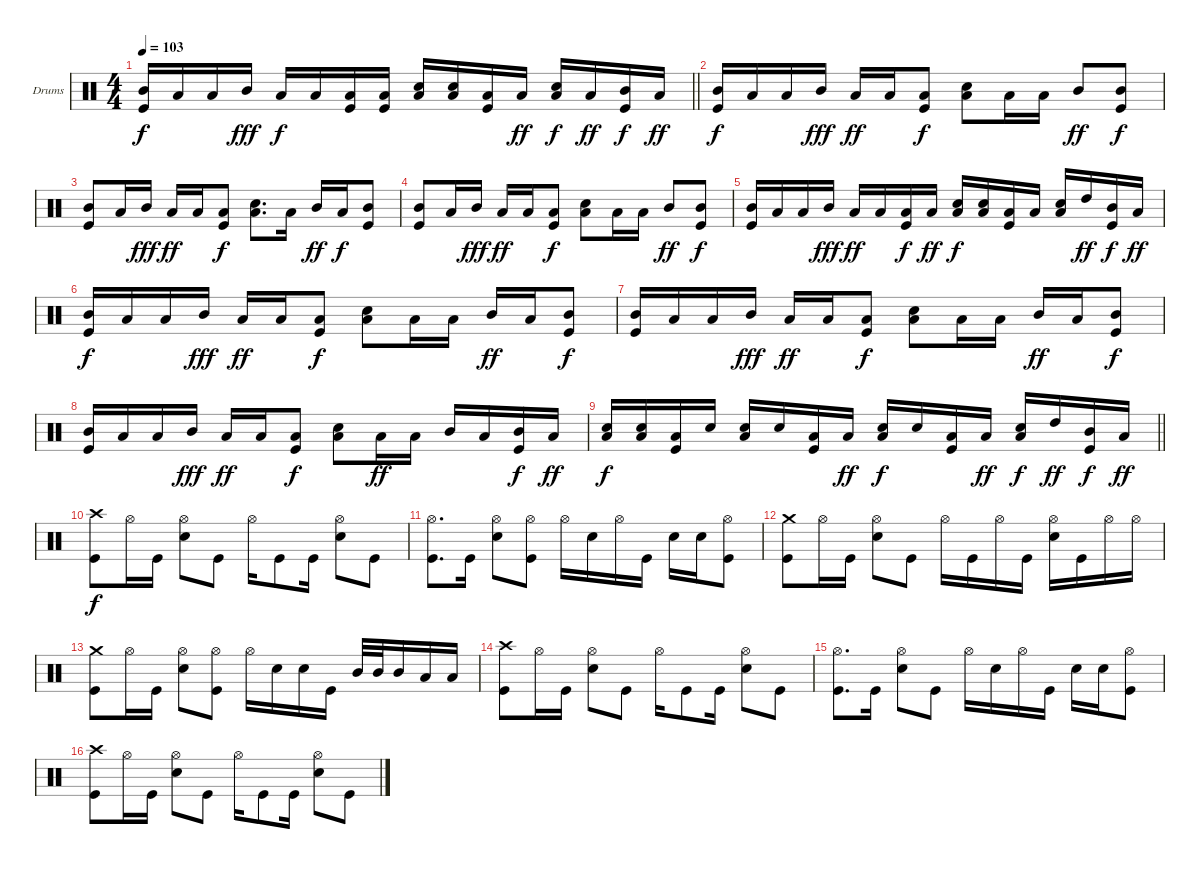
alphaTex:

\bracketExtendMode groupsimilarinstruments
\firstSystemTrackNameOrientation horizontal
\otherSystemsTrackNameOrientation horizontal
\track ("Drums" "Drums") {instrument percussion}
\staff {score}
\articulation defaults
\ts (4 4)
\tempo 103
\clef neutral
\barLineRight lightlight
\ks c
("Mid Tom (hit)" "Kick (hit)").16{dy f} "Low Tom (hit)".16 "Low Tom (hit)".16 "Mid Tom (hit)".16{dy fff} "Low Tom (hit)".16{dy f} "Low Tom (hit)".16 ("Low Tom (hit)" "Kick (hit)").16 ("Low Tom (hit)" "Kick (hit)").16 ("Snare (hit) 2" "Low Tom (hit)").16 ("Snare (hit) 2" "Low Tom (hit)").16 ("Low Tom (hit)" "Kick (hit)").16 "Low Tom (hit)".16{dy ff} ("Snare (hit) 2" "Low Tom (hit)").16{dy f} "Low Tom (hit)".16{dy ff} ("Mid Tom (hit)" "Kick (hit)").16{dy f} "Low Tom (hit)".16{dy ff} |
("Mid Tom (hit)" "Kick (hit)").16{dy f} "Low Tom (hit)".16 "Low Tom (hit)".16 "Mid Tom (hit)".16{dy fff} "Low Tom (hit)".16{dy ff} "Low Tom (hit)".16 ("Low Tom (hit)" "Kick (hit)").8{dy f} ("Snare (hit) 2" "Low Tom (hit)").8 "Low Tom (hit)".16 "Low Tom (hit)".16 "Mid Tom (hit)".8{dy ff} ("Mid Tom (hit)" "Kick (hit)").8{dy f} |
("Mid Tom (hit)" "Kick (hit)").8 "Low Tom (hit)".16 "Mid Tom (hit)".16{dy fff} "Low Tom (hit)".16{dy ff} "Low Tom (hit)".16 ("Low Tom (hit)" "Kick (hit)").8{dy f} ("Snare (hit) 2" "Low Tom (hit)").8{d} "Low Tom (hit)".16 "Mid Tom (hit)".16{dy ff} "Low Tom (hit)".16{dy f} ("Mid Tom (hit)" "Kick (hit)").8 |
("Mid Tom (hit)" "Kick (hit)").8 "Low Tom (hit)".16 "Mid Tom (hit)".16{dy fff} "Low Tom (hit)".16{dy ff} "Low Tom (hit)".16 ("Low Tom (hit)" "Kick (hit)").8{dy f} ("Snare (hit) 2" "Low Tom (hit)").8 "Low Tom (hit)".16 "Low Tom (hit)".16 "Mid Tom (hit)".8{dy ff} ("Mid Tom (hit)" "Kick (hit)").8{dy f} |
("Mid Tom (hit)" "Kick (hit)").16 "Low Tom (hit)".16 "Low Tom (hit)".16 "Mid Tom (hit)".16{dy fff} "Low Tom (hit)".16{dy ff} "Low Tom (hit)".16 ("Low Tom (hit)" "Kick (hit)").16{dy f} "Low Tom (hit)".16{dy ff} ("Snare (hit) 2" "Low Tom (hit)").16{dy f} ("Snare (hit) 2" "Low Tom (hit)").16 ("Low Tom (hit)" "Kick (hit)").16 "Low Tom (hit)".16 ("Snare (hit) 2" "Low Tom (hit)").16 "High Tom (hit)".16{dy ff} ("Mid Tom (hit)" "Kick (hit)").16{dy f} "Low Tom (hit)".16{dy ff} |
("Mid Tom (hit)" "Kick (hit)").16{dy f} "Low Tom (hit)".16 "Low Tom (hit)".16 "Mid Tom (hit)".16{dy fff} "Low Tom (hit)".16{dy ff} "Low Tom (hit)".16 ("Low Tom (hit)" "Kick (hit)").8{dy f} ("Snare (hit) 2" "Low Tom (hit)").8 "Low Tom (hit)".16 "Low Tom (hit)".16 "Mid Tom (hit)".16{dy ff} "Low Tom (hit)".16 ("Mid Tom (hit)" "Kick (hit)").8{dy f} |
("Mid Tom (hit)" "Kick (hit)").16 "Low Tom (hit)".16 "Low Tom (hit)".16 "Mid Tom (hit)".16{dy fff} "Low Tom (hit)".16{dy ff} "Low Tom (hit)".16 ("Low Tom (hit)" "Kick (hit)").8{dy f} ("Snare (hit) 2" "Low Tom (hit)").8 "Low Tom (hit)".16 "Low Tom (hit)".16 "Mid Tom (hit)".16{dy ff} "Low Tom (hit)".16 ("Mid Tom (hit)" "Kick (hit)").8{dy f} |
("Mid Tom (hit)" "Kick (hit)").16 "Low Tom (hit)".16 "Low Tom (hit)".16 "Mid Tom (hit)".16{dy fff} "Low Tom (hit)".16{dy ff} "Low Tom (hit)".16 ("Low Tom (hit)" "Kick (hit)").8{dy f} ("Snare (hit) 2" "Low Tom (hit)").8 "Low Tom (hit)".16{dy ff} "Low Tom (hit)".16 "Mid Tom (hit)".16 "Low Tom (hit)".16 ("Mid Tom (hit)" "Kick (hit)").16{dy f} "Low Tom (hit)".16{dy ff} |
\barLineRight lightlight
("Snare (hit) 2" "Low Tom (hit)").16{dy f} ("Snare (hit) 2" "Low Tom (hit)").16 ("Low Tom (hit)" "Kick (hit)").16 "Snare (hit) 2".16 ("Snare (hit) 2" "Low Tom (hit)").16 "Snare (hit) 2".16 ("Low Tom (hit)" "Kick (hit)").16 "Low Tom (hit)".16{dy ff} ("Snare (hit) 2" "Low Tom (hit)").16{dy f} "Snare (hit) 2".16 ("Low Tom (hit)" "Kick (hit)").16 "Low Tom (hit)".16{dy ff} ("Snare (hit) 2" "Low Tom (hit)").16{dy f} "High Tom (hit)".16{dy ff} ("Mid Tom (hit)" "Kick (hit)").16{dy f} "Low Tom (hit)".16{dy ff} |
("Kick (hit)" "Crash high (hit)").8{dy f} "Hi-Hat (open)".16 "Kick (hit)".16 ("Snare (hit) 2" "Hi-Hat (open)").8 "Kick (hit)".8 "Hi-Hat (open)".16 "Kick (hit)".8 "Kick (hit)".16 ("Snare (hit) 2" "Hi-Hat (open)").8 "Kick (hit)".8 |
("Kick (hit)" "Hi-Hat (open)").8{d} "Kick (hit)".16 ("Snare (hit) 2" "Hi-Hat (open)").8 ("Kick (hit)" "Hi-Hat (open)").8 "Hi-Hat (open)".16 "Snare (hit) 2".16 "Hi-Hat (open)".16 "Kick (hit)".16 "Snare (hit) 2".16 "Snare (hit) 2".16 ("Kick (hit)" "Hi-Hat (open)").8 |
("Kick (hit)" "Crash medium (hit)").8 "Hi-Hat (open)".16 "Kick (hit)".16 ("Snare (hit) 2" "Hi-Hat (open)").8 "Kick (hit)".8 "Hi-Hat (open)".16 "Kick (hit)".16 "Hi-Hat (open)".16 "Kick (hit)".16 ("Snare (hit) 2" "Hi-Hat (open)").16 "Kick (hit)".16 "Hi-Hat (open)".16 "Hi-Hat (open)".16 |
("Kick (hit)" "Crash medium (hit)").8 "Hi-Hat (open)".16 "Kick (hit)".16 ("Snare (hit) 2" "Hi-Hat (open)").8 ("Kick (hit)" "Hi-Hat (open)").8 "Hi-Hat (open)".16 "Snare (hit) 2".16 "Snare (hit) 2".16 "Kick (hit)".16 "Mid Tom (hit)".32 "Mid Tom (hit)".32 "Mid Tom (hit)".16 "Low Tom (hit)".16 "Low Tom (hit)".16 |
("Kick (hit)" "Crash high (hit)").8 "Hi-Hat (open)".16 "Kick (hit)".16 ("Snare (hit) 2" "Hi-Hat (open)").8 "Kick (hit)".8 "Hi-Hat (open)".16 "Kick (hit)".8 "Kick (hit)".16 ("Snare (hit) 2" "Hi-Hat (open)").8 "Kick (hit)".8 |
("Kick (hit)" "Hi-Hat (open)").8{d} "Kick (hit)".16 ("Snare (hit) 2" "Hi-Hat (open)").8 "Kick (hit)".8 "Hi-Hat (open)".16 "Snare (hit) 2".16 "Hi-Hat (open)".16 "Kick (hit)".16 "Snare (hit) 2".16 "Snare (hit) 2".16 ("Kick (hit)" "Hi-Hat (open)").8 |
("Kick (hit)" "Crash high (hit)").8 "Hi-Hat (open)".16 "Kick (hit)".16 ("Snare (hit) 2" "Hi-Hat (open)").8 "Kick (hit)".8 "Hi-Hat (open)".16 "Kick (hit)".8 "Kick (hit)".16 ("Snare (hit) 2" "Hi-Hat (open)").8 "Kick (hit)".8
